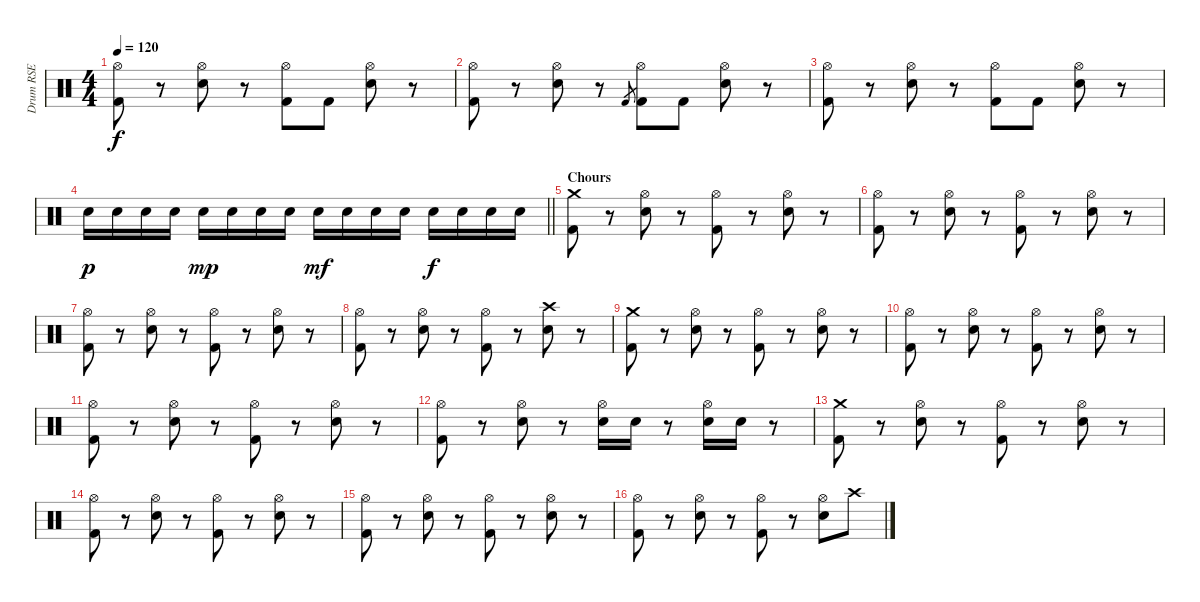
\track ("Drum RSE" "Drum RSE") {instrument percussion}
\staff {score}
\articulation defaults
\ts (4 4)
\tempo 120
\clef neutral
\ks c
("Hi-Hat (open)" "Kick (hit) 2").8{dy f} r.8 ("Hi-Hat (open)" "Snare (hit) 2").8 r.8 ("Hi-Hat (open)" "Kick (hit) 2").8 "Kick (hit) 2".8 ("Hi-Hat (open)" "Snare (hit) 2").8 r.8 |
("Hi-Hat (open)" "Kick (hit) 2").8 r.8 ("Hi-Hat (open)" "Snare (hit) 2").8 r.8 "Kick (hit) 2".8{gr} ("Hi-Hat (open)" "Kick (hit) 2").8 "Kick (hit) 2".8 ("Hi-Hat (open)" "Snare (hit) 2").8 r.8 |
("Hi-Hat (open)" "Kick (hit) 2").8 r.8 ("Hi-Hat (open)" "Snare (hit) 2").8 r.8 ("Hi-Hat (open)" "Kick (hit) 2").8 "Kick (hit) 2".8 ("Hi-Hat (open)" "Snare (hit) 2").8 r.8 |
\barLineRight lightlight "Snare (hit) 2".16{dy p} "Snare (hit) 2".16 "Snare (hit) 2".16 "Snare (hit) 2".16 "Snare (hit) 2".16{dy mp} "Snare (hit) 2".16 "Snare (hit) 2".16 "Snare (hit) 2".16 "Snare (hit) 2".16{dy mf} "Snare (hit) 2".16 "Snare (hit) 2".16 "Snare (hit) 2".16 "Snare (hit) 2".16{dy f} "Snare (hit) 2".16 "Snare (hit) 2".16 "Snare (hit) 2".16
|
\section ("" "Chours")
("Crash medium (hit)" "Kick (hit) 2").8 r.8 ("Hi-Hat (open)" "Snare (hit) 2").8 r.8 ("Hi-Hat (open)" "Kick (hit) 2").8 r.8 ("Hi-Hat (open)" "Snare (hit) 2").8 r.8 |
("Hi-Hat (open)" "Kick (hit) 2").8 r.8 ("Hi-Hat (open)" "Snare (hit) 2").8 r.8 ("Hi-Hat (open)" "Kick (hit) 2").8 r.8 ("Hi-Hat (open)" "Snare (hit) 2").8 r.8 |
("Hi-Hat (open)" "Kick (hit) 2").8 r.8 ("Hi-Hat (open)" "Snare (hit) 2").8 r.8 ("Hi-Hat (open)" "Kick (hit) 2").8 r.8 ("Hi-Hat (open)" "Snare (hit) 2").8 r.8 |
("Hi-Hat (open)" "Kick (hit) 2").8 r.8 ("Hi-Hat (open)" "Snare (hit) 2").8 r.8 ("Hi-Hat (open)" "Kick (hit) 2").8 r.8 ("Crash high (hit)" "Snare (hit) 2").8 r.8 |
("Crash medium (hit)" "Kick (hit) 2").8 r.8 ("Hi-Hat (open)" "Snare (hit) 2").8 r.8 ("Hi-Hat (open)" "Kick (hit) 2").8 r.8 ("Hi-Hat (open)" "Snare (hit) 2").8 r.8 |
("Hi-Hat (open)" "Kick (hit) 2").8 r.8 ("Hi-Hat (open)" "Snare (hit) 2").8 r.8 ("Hi-Hat (open)" "Kick (hit) 2").8 r.8 ("Hi-Hat (open)" "Snare (hit) 2").8 r.8 |
("Hi-Hat (open)" "Kick (hit) 2").8 r.8 ("Hi-Hat (open)" "Snare (hit) 2").8 r.8 ("Hi-Hat (open)" "Kick (hit) 2").8 r.8 ("Hi-Hat (open)" "Snare (hit) 2").8 r.8 |
("Hi-Hat (open)" "Kick (hit) 2").8 r.8 ("Hi-Hat (open)" "Snare (hit) 2").8 r.8 ("Hi-Hat (open)" "Snare (hit) 2").16 "Snare (hit) 2".16 r.8 ("Hi-Hat (open)" "Snare (hit) 2").16 "Snare (hit) 2".16 r.8 |
("Crash medium (hit)" "Kick (hit) 2").8 r.8 ("Hi-Hat (open)" "Snare (hit) 2").8 r.8 ("Hi-Hat (open)" "Kick (hit) 2").8 r.8 ("Hi-Hat (open)" "Snare (hit) 2").8 r.8 |
("Hi-Hat (open)" "Kick (hit) 2").8 r.8 ("Hi-Hat (open)" "Snare (hit) 2").8 r.8 ("Hi-Hat (open)" "Kick (hit) 2").8 r.8 ("Hi-Hat (open)" "Snare (hit) 2").8 r.8 |
("Hi-Hat (open)" "Kick (hit) 2").8 r.8 ("Hi-Hat (open)" "Snare (hit) 2").8 r.8 ("Hi-Hat (open)" "Kick (hit) 2").8 r.8 ("Hi-Hat (open)" "Snare (hit) 2").8 r.8 |
("Hi-Hat (open)" "Kick (hit) 2").8 r.8 ("Hi-Hat (open)" "Snare (hit) 2").8 r.8 ("Hi-Hat (open)" "Kick (hit) 2").8 r.8 ("Hi-Hat (open)" "Snare (hit) 2").8 "Crash high (hit)".8
